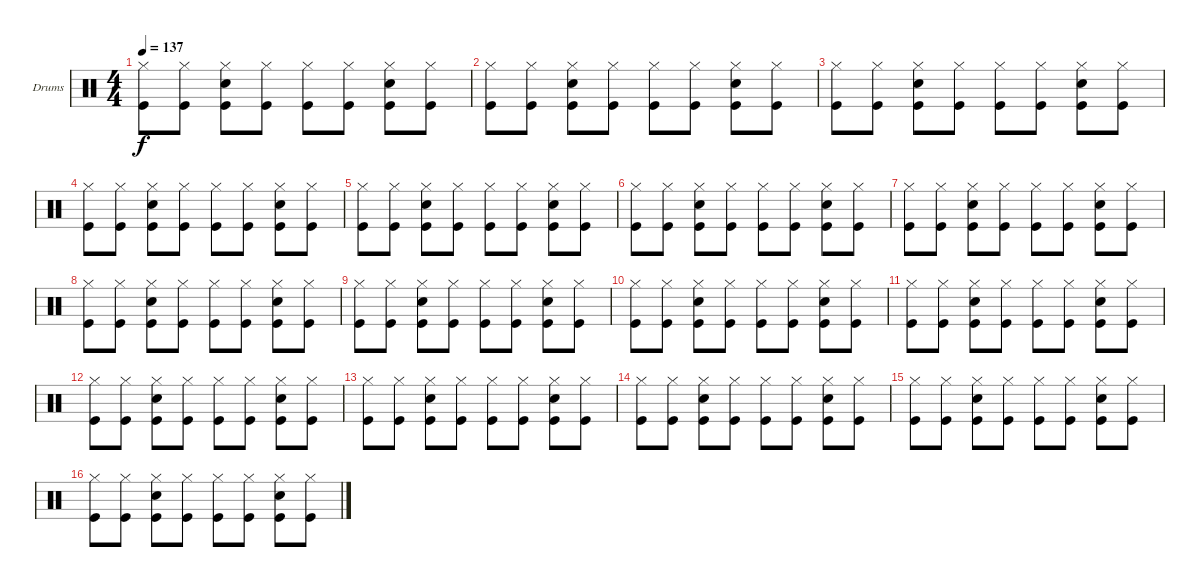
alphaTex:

\bracketExtendMode groupsimilarinstruments
\firstSystemTrackNameOrientation horizontal
\otherSystemsTrackNameOrientation horizontal
\track ("Peter Ulrich (Drums)" "Drums") {instrument percussion}
\staff {score}
\articulation defaults
\ts (4 4)
\tempo 137
\clef neutral
\ks c
("Hi-Hat (closed)" "Kick (hit)").8{dy f} ("Hi-Hat (closed)" "Kick (hit)").8 ("Hi-Hat (closed)" "Snare (hit) 2" "Kick (hit)").8 ("Hi-Hat (closed)" "Kick (hit)").8 ("Hi-Hat (closed)" "Kick (hit)").8 ("Hi-Hat (closed)" "Kick (hit)").8 ("Hi-Hat (closed)" "Snare (hit) 2" "Kick (hit)").8 ("Hi-Hat (closed)" "Kick (hit)").8 |
("Hi-Hat (closed)" "Kick (hit)").8 ("Hi-Hat (closed)" "Kick (hit)").8 ("Hi-Hat (closed)" "Snare (hit) 2" "Kick (hit)").8 ("Hi-Hat (closed)" "Kick (hit)").8 ("Hi-Hat (closed)" "Kick (hit)").8 ("Hi-Hat (closed)" "Kick (hit)").8 ("Hi-Hat (closed)" "Snare (hit) 2" "Kick (hit)").8 ("Hi-Hat (closed)" "Kick (hit)").8 |
("Hi-Hat (closed)" "Kick (hit)").8 ("Hi-Hat (closed)" "Kick (hit)").8 ("Hi-Hat (closed)" "Snare (hit) 2" "Kick (hit)").8 ("Hi-Hat (closed)" "Kick (hit)").8 ("Hi-Hat (closed)" "Kick (hit)").8 ("Hi-Hat (closed)" "Kick (hit)").8 ("Hi-Hat (closed)" "Snare (hit) 2" "Kick (hit)").8 ("Hi-Hat (closed)" "Kick (hit)").8 |
("Hi-Hat (closed)" "Kick (hit)").8 ("Hi-Hat (closed)" "Kick (hit)").8 ("Hi-Hat (closed)" "Snare (hit) 2" "Kick (hit)").8 ("Hi-Hat (closed)" "Kick (hit)").8 ("Hi-Hat (closed)" "Kick (hit)").8 ("Hi-Hat (closed)" "Kick (hit)").8 ("Hi-Hat (closed)" "Snare (hit) 2" "Kick (hit)").8 ("Hi-Hat (closed)" "Kick (hit)").8 |
("Hi-Hat (closed)" "Kick (hit)").8 ("Hi-Hat (closed)" "Kick (hit)").8 ("Hi-Hat (closed)" "Snare (hit) 2" "Kick (hit)").8 ("Hi-Hat (closed)" "Kick (hit)").8 ("Hi-Hat (closed)" "Kick (hit)").8 ("Hi-Hat (closed)" "Kick (hit)").8 ("Hi-Hat (closed)" "Snare (hit) 2" "Kick (hit)").8 ("Hi-Hat (closed)" "Kick (hit)").8 |
("Hi-Hat (closed)" "Kick (hit)").8 ("Hi-Hat (closed)" "Kick (hit)").8 ("Hi-Hat (closed)" "Snare (hit) 2" "Kick (hit)").8 ("Hi-Hat (closed)" "Kick (hit)").8 ("Hi-Hat (closed)" "Kick (hit)").8 ("Hi-Hat (closed)" "Kick (hit)").8 ("Hi-Hat (closed)" "Snare (hit) 2" "Kick (hit)").8 ("Hi-Hat (closed)" "Kick (hit)").8 |
("Hi-Hat (closed)" "Kick (hit)").8 ("Hi-Hat (closed)" "Kick (hit)").8 ("Hi-Hat (closed)" "Snare (hit) 2" "Kick (hit)").8 ("Hi-Hat (closed)" "Kick (hit)").8 ("Hi-Hat (closed)" "Kick (hit)").8 ("Hi-Hat (closed)" "Kick (hit)").8 ("Hi-Hat (closed)" "Snare (hit) 2" "Kick (hit)").8 ("Hi-Hat (closed)" "Kick (hit)").8 |
("Hi-Hat (closed)" "Kick (hit)").8 ("Hi-Hat (closed)" "Kick (hit)").8 ("Hi-Hat (closed)" "Snare (hit) 2" "Kick (hit)").8 ("Hi-Hat (closed)" "Kick (hit)").8 ("Hi-Hat (closed)" "Kick (hit)").8 ("Hi-Hat (closed)" "Kick (hit)").8 ("Hi-Hat (closed)" "Snare (hit) 2" "Kick (hit)").8 ("Hi-Hat (closed)" "Kick (hit)").8 |
("Hi-Hat (closed)" "Kick (hit)").8 ("Hi-Hat (closed)" "Kick (hit)").8 ("Hi-Hat (closed)" "Snare (hit) 2" "Kick (hit)").8 ("Hi-Hat (closed)" "Kick (hit)").8 ("Hi-Hat (closed)" "Kick (hit)").8 ("Hi-Hat (closed)" "Kick (hit)").8 ("Hi-Hat (closed)" "Snare (hit) 2" "Kick (hit)").8 ("Hi-Hat (closed)" "Kick (hit)").8 |
("Hi-Hat (closed)" "Kick (hit)").8 ("Hi-Hat (closed)" "Kick (hit)").8 ("Hi-Hat (closed)" "Snare (hit) 2" "Kick (hit)").8 ("Hi-Hat (closed)" "Kick (hit)").8 ("Hi-Hat (closed)" "Kick (hit)").8 ("Hi-Hat (closed)" "Kick (hit)").8 ("Hi-Hat (closed)" "Snare (hit) 2" "Kick (hit)").8 ("Hi-Hat (closed)" "Kick (hit)").8 |
("Hi-Hat (closed)" "Kick (hit)").8 ("Hi-Hat (closed)" "Kick (hit)").8 ("Hi-Hat (closed)" "Snare (hit) 2" "Kick (hit)").8 ("Hi-Hat (closed)" "Kick (hit)").8 ("Hi-Hat (closed)" "Kick (hit)").8 ("Hi-Hat (closed)" "Kick (hit)").8 ("Hi-Hat (closed)" "Snare (hit) 2" "Kick (hit)").8 ("Hi-Hat (closed)" "Kick (hit)").8 |
("Hi-Hat (closed)" "Kick (hit)").8 ("Hi-Hat (closed)" "Kick (hit)").8 ("Hi-Hat (closed)" "Snare (hit) 2" "Kick (hit)").8 ("Hi-Hat (closed)" "Kick (hit)").8 ("Hi-Hat (closed)" "Kick (hit)").8 ("Hi-Hat (closed)" "Kick (hit)").8 ("Hi-Hat (closed)" "Snare (hit) 2" "Kick (hit)").8 ("Hi-Hat (closed)" "Kick (hit)").8 |
("Hi-Hat (closed)" "Kick (hit)").8 ("Hi-Hat (closed)" "Kick (hit)").8 ("Hi-Hat (closed)" "Snare (hit) 2" "Kick (hit)").8 ("Hi-Hat (closed)" "Kick (hit)").8 ("Hi-Hat (closed)" "Kick (hit)").8 ("Hi-Hat (closed)" "Kick (hit)").8 ("Hi-Hat (closed)" "Snare (hit) 2" "Kick (hit)").8 ("Hi-Hat (closed)" "Kick (hit)").8 |
("Hi-Hat (closed)" "Kick (hit)").8 ("Hi-Hat (closed)" "Kick (hit)").8 ("Hi-Hat (closed)" "Snare (hit) 2" "Kick (hit)").8 ("Hi-Hat (closed)" "Kick (hit)").8 ("Hi-Hat (closed)" "Kick (hit)").8 ("Hi-Hat (closed)" "Kick (hit)").8 ("Hi-Hat (closed)" "Snare (hit) 2" "Kick (hit)").8 ("Hi-Hat (closed)" "Kick (hit)").8 |
("Hi-Hat (closed)" "Kick (hit)").8 ("Hi-Hat (closed)" "Kick (hit)").8 ("Hi-Hat (closed)" "Snare (hit) 2" "Kick (hit)").8 ("Hi-Hat (closed)" "Kick (hit)").8 ("Hi-Hat (closed)" "Kick (hit)").8 ("Hi-Hat (closed)" "Kick (hit)").8 ("Hi-Hat (closed)" "Snare (hit) 2" "Kick (hit)").8 ("Hi-Hat (closed)" "Kick (hit)").8 |
("Hi-Hat (closed)" "Kick (hit)").8 ("Hi-Hat (closed)" "Kick (hit)").8 ("Hi-Hat (closed)" "Snare (hit) 2" "Kick (hit)").8 ("Hi-Hat (closed)" "Kick (hit)").8 ("Hi-Hat (closed)" "Kick (hit)").8 ("Hi-Hat (closed)" "Kick (hit)").8 ("Hi-Hat (closed)" "Snare (hit) 2" "Kick (hit)").8 ("Hi-Hat (closed)" "Kick (hit)").8
